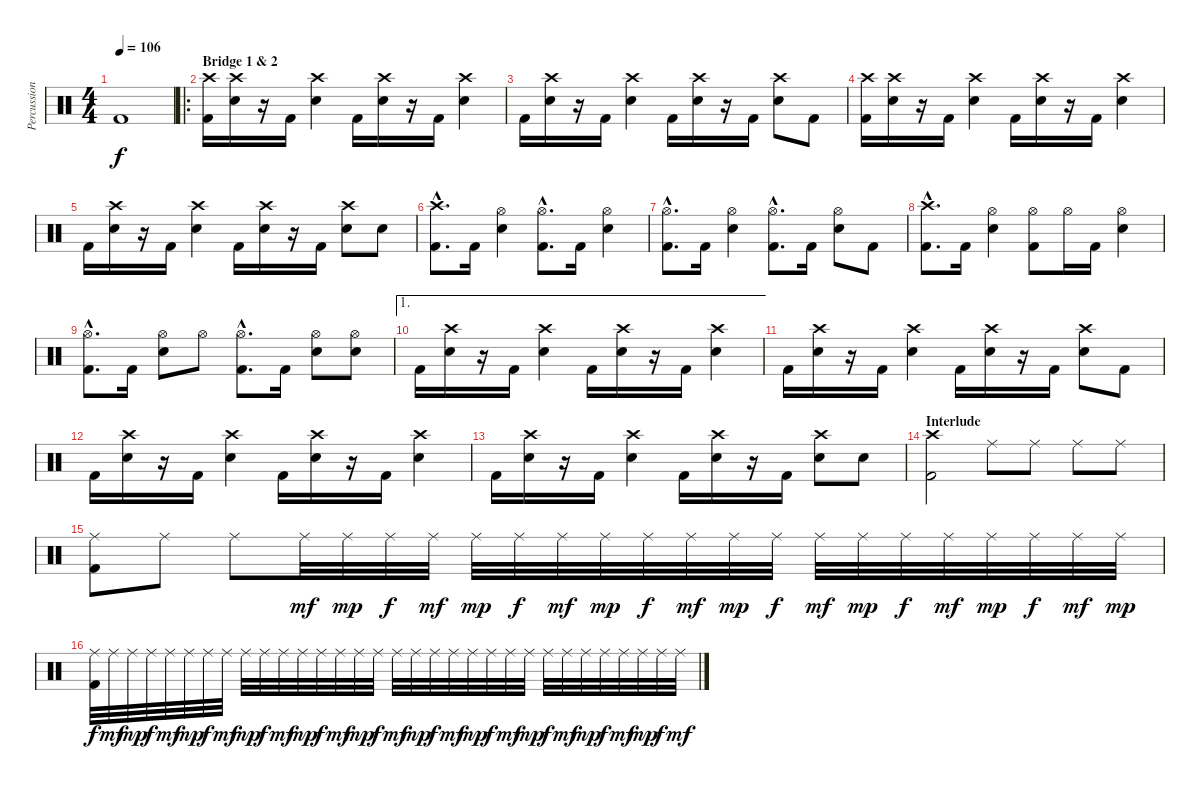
\track ("Percussion" "Percussion") {instrument percussion}
\staff {score}
\articulation defaults
\ts (4 4)
\tempo 106
\clef neutral
\ks c "Kick (hit) 2".1{dy f}
|
\ro
\section ("" "Bridge 1 & 2")
("Kick (hit) 2" "Crash high (hit)").16 ("Crash high (hit)" "Snare (hit) 2").16 r.16 "Kick (hit) 2".16 ("Crash high (hit)" "Snare (hit) 2").4 "Kick (hit) 2".16 ("Crash high (hit)" "Snare (hit) 2").16 r.16 "Kick (hit) 2".16 ("Crash high (hit)" "Snare (hit) 2").4 |
"Kick (hit) 2".16 ("Crash high (hit)" "Snare (hit) 2").16 r.16 "Kick (hit) 2".16 ("Crash high (hit)" "Snare (hit) 2").4 "Kick (hit) 2".16 ("Crash high (hit)" "Snare (hit) 2").16 r.16 "Kick (hit) 2".16 ("Crash high (hit)" "Snare (hit) 2").8 "Kick (hit) 2".8 |
("Kick (hit) 2" "Crash high (hit)").16 ("Crash high (hit)" "Snare (hit) 2").16 r.16 "Kick (hit) 2".16 ("Crash high (hit)" "Snare (hit) 2").4 "Kick (hit) 2".16 ("Crash high (hit)" "Snare (hit) 2").16 r.16 "Kick (hit) 2".16 ("Crash high (hit)" "Snare (hit) 2").4 |
"Kick (hit) 2".16 ("Crash high (hit)" "Snare (hit) 2").16 r.16 "Kick (hit) 2".16 ("Crash high (hit)" "Snare (hit) 2").4 "Kick (hit) 2".16 ("Crash high (hit)" "Snare (hit) 2").16 r.16 "Kick (hit) 2".16 ("Crash high (hit)" "Snare (hit) 2").8 "Snare (hit) 2".8 |
("Kick (hit) 2"{hac} "Crash high (hit)"{hac}).8{d} "Kick (hit) 2".16 ("Snare (hit) 2" "Hi-Hat (open)").4 ("Kick (hit) 2"{hac} "Hi-Hat (open)"{hac}).8{d} "Kick (hit) 2".16 ("Snare (hit) 2" "Hi-Hat (open)").4 |
("Kick (hit) 2"{hac} "Hi-Hat (open)"{hac}).8{d} "Kick (hit) 2".16 ("Snare (hit) 2" "Hi-Hat (open)").4 ("Kick (hit) 2"{hac} "Hi-Hat (open)"{hac}).8{d} "Kick (hit) 2".16 ("Snare (hit) 2" "Hi-Hat (open)").8 "Kick (hit) 2".8 |
("Kick (hit) 2"{hac} "Crash high (hit)"{hac}).8{d} "Kick (hit) 2".16 ("Snare (hit) 2" "Hi-Hat (open)").4 ("Kick (hit) 2" "Hi-Hat (open)").8 "Hi-Hat (open)".16 "Kick (hit) 2".16 ("Snare (hit) 2" "Hi-Hat (open)").4 |
("Kick (hit) 2"{hac} "Hi-Hat (open)"{hac}).8{d} "Kick (hit) 2".16 ("Snare (hit) 2" "Hi-Hat (open)").8 "Hi-Hat (open)".8 ("Kick (hit) 2"{hac} "Hi-Hat (open)"{hac}).8{d} "Kick (hit) 2".16 ("Snare (hit) 2" "Hi-Hat (open)").8 ("Snare (hit) 2" "Hi-Hat (open)").8 |
\ae 1 "Kick (hit) 2".16
("Crash high (hit)" "Snare (hit) 2").16 r.16 "Kick (hit) 2".16 ("Crash high (hit)" "Snare (hit) 2").4 "Kick (hit) 2".16 ("Crash high (hit)" "Snare (hit) 2").16 r.16 "Kick (hit) 2".16 ("Crash high (hit)" "Snare (hit) 2").4 |
"Kick (hit) 2".16 ("Crash high (hit)" "Snare (hit) 2").16 r.16 "Kick (hit) 2".16 ("Crash high (hit)" "Snare (hit) 2").4 "Kick (hit) 2".16 ("Crash high (hit)" "Snare (hit) 2").16 r.16 "Kick (hit) 2".16 ("Crash high (hit)" "Snare (hit) 2").8 "Kick (hit) 2".8 |
"Kick (hit) 2".16 ("Crash high (hit)" "Snare (hit) 2").16 r.16 "Kick (hit) 2".16 ("Crash high (hit)" "Snare (hit) 2").4 "Kick (hit) 2".16 ("Crash high (hit)" "Snare (hit) 2").16 r.16 "Kick (hit) 2".16 ("Crash high (hit)" "Snare (hit) 2").4 |
"Kick (hit) 2".16 ("Crash high (hit)" "Snare (hit) 2").16 r.16 "Kick (hit) 2".16 ("Crash high (hit)" "Snare (hit) 2").4 "Kick (hit) 2".16 ("Crash high (hit)" "Snare (hit) 2").16 r.16 "Kick (hit) 2".16 ("Crash high (hit)" "Snare (hit) 2").8 "Snare (hit) 2".8 |
\section ("" "Interlude")
("Kick (hit) 2" "Crash high (hit)").2 "Ride (middle)".8 "Ride (middle)".8 "Ride (middle)".8 "Ride (middle)".8 |
("Kick (hit) 2" "Ride (middle)").8 "Ride (middle)".8 "Ride (middle)".8 "Ride (middle)".32{dy mf} "Ride (middle)".32{dy mp} "Ride (middle)".32{dy f} "Ride (middle)".32{dy mf} "Ride (middle)".32{dy mp} "Ride (middle)".32{dy f} "Ride (middle)".32{dy mf} "Ride (middle)".32{dy mp} "Ride (middle)".32{dy f} "Ride (middle)".32{dy mf} "Ride (middle)".32{dy mp} "Ride (middle)".32{dy f} "Ride (middle)".32{dy mf} "Ride (middle)".32{dy mp} "Ride (middle)".32{dy f} "Ride (middle)".32{dy mf} "Ride (middle)".32{dy mp} "Ride (middle)".32{dy f} "Ride (middle)".32{dy mf} "Ride (middle)".32{dy mp} |
("Kick (hit) 2" "Ride (middle)").32{dy f} "Ride (middle)".32{dy mf} "Ride (middle)".32{dy mp} "Ride (middle)".32{dy f} "Ride (middle)".32{dy mf} "Ride (middle)".32{dy mp} "Ride (middle)".32{dy f} "Ride (middle)".32{dy mf} "Ride (middle)".32{dy mp} "Ride (middle)".32{dy f} "Ride (middle)".32{dy mf} "Ride (middle)".32{dy mp} "Ride (middle)".32{dy f} "Ride (middle)".32{dy mf} "Ride (middle)".32{dy mp} "Ride (middle)".32{dy f} "Ride (middle)".32{dy mf} "Ride (middle)".32{dy mp} "Ride (middle)".32{dy f} "Ride (middle)".32{dy mf} "Ride (middle)".32{dy mp} "Ride (middle)".32{dy f} "Ride (middle)".32{dy mf} "Ride (middle)".32{dy mp} "Ride (middle)".32{dy f} "Ride (middle)".32{dy mf} "Ride (middle)".32{dy mp} "Ride (middle)".32{dy f} "Ride (middle)".32{dy mf} "Ride (middle)".32{dy mp} "Ride (middle)".32{dy f} "Ride (middle)".32{dy mf}
